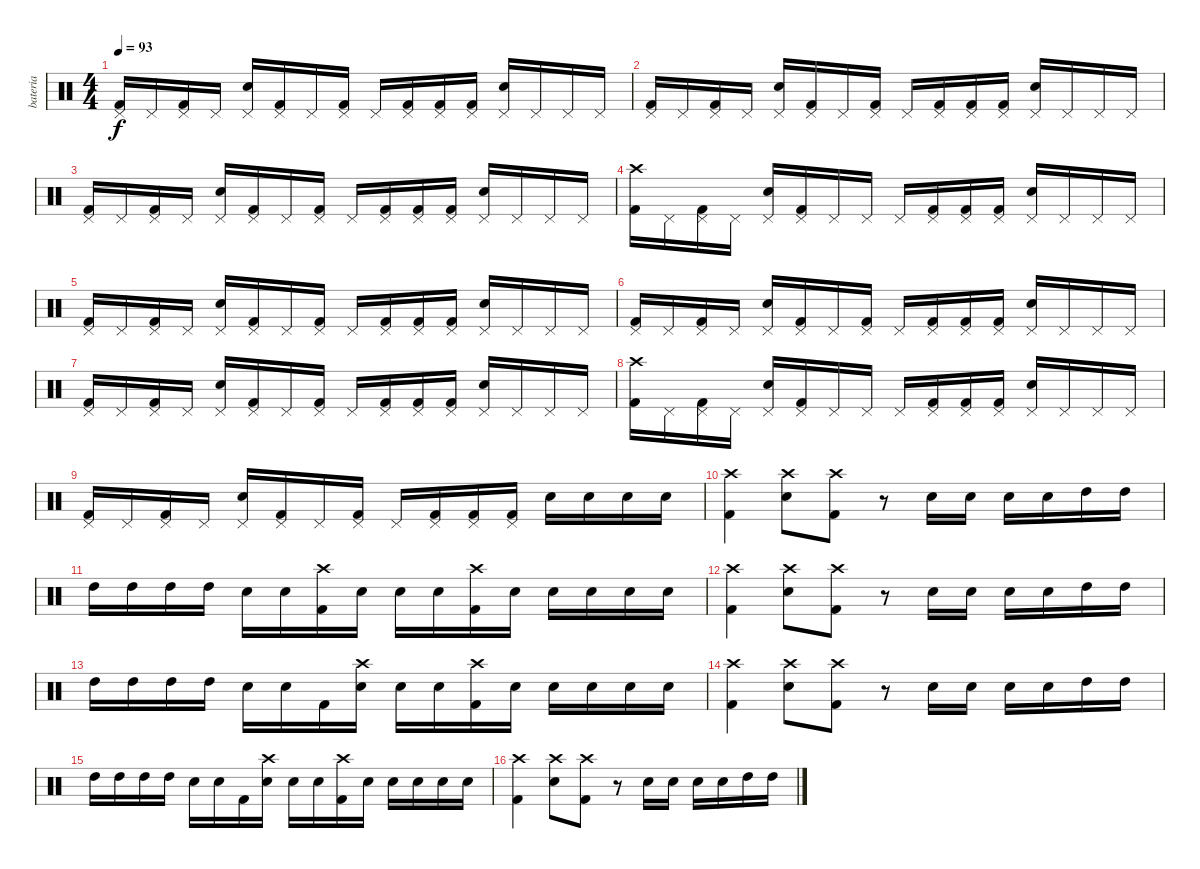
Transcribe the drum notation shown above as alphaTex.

\track ("bateria" "bateria") {instrument percussion}
\staff {score}
\articulation defaults
\ts (4 4)
\tempo 93
\clef neutral
\ks c
("Kick (hit) 2" "Pedal Hi-Hat (hit)").16{dy f} "Pedal Hi-Hat (hit)".16 ("Kick (hit) 2" "Pedal Hi-Hat (hit)").16 "Pedal Hi-Hat (hit)".16 ("Snare (hit) 2" "Pedal Hi-Hat (hit)").16 ("Kick (hit) 2" "Pedal Hi-Hat (hit)").16 "Pedal Hi-Hat (hit)".16 ("Kick (hit) 2" "Pedal Hi-Hat (hit)").16 "Pedal Hi-Hat (hit)".16 ("Kick (hit) 2" "Pedal Hi-Hat (hit)").16 ("Kick (hit) 2" "Pedal Hi-Hat (hit)").16 ("Kick (hit) 2" "Pedal Hi-Hat (hit)").16 ("Snare (hit) 2" "Pedal Hi-Hat (hit)").16 "Pedal Hi-Hat (hit)".16 "Pedal Hi-Hat (hit)".16 "Pedal Hi-Hat (hit)".16 |
("Kick (hit) 2" "Pedal Hi-Hat (hit)").16 "Pedal Hi-Hat (hit)".16 ("Kick (hit) 2" "Pedal Hi-Hat (hit)").16 "Pedal Hi-Hat (hit)".16 ("Snare (hit) 2" "Pedal Hi-Hat (hit)").16 ("Kick (hit) 2" "Pedal Hi-Hat (hit)").16 "Pedal Hi-Hat (hit)".16 ("Kick (hit) 2" "Pedal Hi-Hat (hit)").16 "Pedal Hi-Hat (hit)".16 ("Kick (hit) 2" "Pedal Hi-Hat (hit)").16 ("Kick (hit) 2" "Pedal Hi-Hat (hit)").16 ("Kick (hit) 2" "Pedal Hi-Hat (hit)").16 ("Snare (hit) 2" "Pedal Hi-Hat (hit)").16 "Pedal Hi-Hat (hit)".16 "Pedal Hi-Hat (hit)".16 "Pedal Hi-Hat (hit)".16 |
("Kick (hit) 2" "Pedal Hi-Hat (hit)").16 "Pedal Hi-Hat (hit)".16 ("Kick (hit) 2" "Pedal Hi-Hat (hit)").16 "Pedal Hi-Hat (hit)".16 ("Snare (hit) 2" "Pedal Hi-Hat (hit)").16 ("Kick (hit) 2" "Pedal Hi-Hat (hit)").16 "Pedal Hi-Hat (hit)".16 ("Kick (hit) 2" "Pedal Hi-Hat (hit)").16 "Pedal Hi-Hat (hit)".16 ("Kick (hit) 2" "Pedal Hi-Hat (hit)").16 ("Kick (hit) 2" "Pedal Hi-Hat (hit)").16 ("Kick (hit) 2" "Pedal Hi-Hat (hit)").16 ("Snare (hit) 2" "Pedal Hi-Hat (hit)").16 "Pedal Hi-Hat (hit)".16 "Pedal Hi-Hat (hit)".16 "Pedal Hi-Hat (hit)".16 |
("Kick (hit) 2" "Crash high (hit)").16 "Pedal Hi-Hat (hit)".16 ("Kick (hit) 2" "Pedal Hi-Hat (hit)").16 "Pedal Hi-Hat (hit)".16 ("Snare (hit) 2" "Pedal Hi-Hat (hit)").16 ("Kick (hit) 2" "Pedal Hi-Hat (hit)").16 "Pedal Hi-Hat (hit)".16 "Pedal Hi-Hat (hit)".16 "Pedal Hi-Hat (hit)".16 ("Kick (hit) 2" "Pedal Hi-Hat (hit)").16 ("Kick (hit) 2" "Pedal Hi-Hat (hit)").16 ("Kick (hit) 2" "Pedal Hi-Hat (hit)").16 ("Snare (hit) 2" "Pedal Hi-Hat (hit)").16 "Pedal Hi-Hat (hit)".16 "Pedal Hi-Hat (hit)".16 "Pedal Hi-Hat (hit)".16 |
("Kick (hit) 2" "Pedal Hi-Hat (hit)").16 "Pedal Hi-Hat (hit)".16 ("Kick (hit) 2" "Pedal Hi-Hat (hit)").16 "Pedal Hi-Hat (hit)".16 ("Snare (hit) 2" "Pedal Hi-Hat (hit)").16 ("Kick (hit) 2" "Pedal Hi-Hat (hit)").16 "Pedal Hi-Hat (hit)".16 ("Kick (hit) 2" "Pedal Hi-Hat (hit)").16 "Pedal Hi-Hat (hit)".16 ("Kick (hit) 2" "Pedal Hi-Hat (hit)").16 ("Kick (hit) 2" "Pedal Hi-Hat (hit)").16 ("Kick (hit) 2" "Pedal Hi-Hat (hit)").16 ("Snare (hit) 2" "Pedal Hi-Hat (hit)").16 "Pedal Hi-Hat (hit)".16 "Pedal Hi-Hat (hit)".16 "Pedal Hi-Hat (hit)".16 |
("Kick (hit) 2" "Pedal Hi-Hat (hit)").16 "Pedal Hi-Hat (hit)".16 ("Kick (hit) 2" "Pedal Hi-Hat (hit)").16 "Pedal Hi-Hat (hit)".16 ("Snare (hit) 2" "Pedal Hi-Hat (hit)").16 ("Kick (hit) 2" "Pedal Hi-Hat (hit)").16 "Pedal Hi-Hat (hit)".16 ("Kick (hit) 2" "Pedal Hi-Hat (hit)").16 "Pedal Hi-Hat (hit)".16 ("Kick (hit) 2" "Pedal Hi-Hat (hit)").16 ("Kick (hit) 2" "Pedal Hi-Hat (hit)").16 ("Kick (hit) 2" "Pedal Hi-Hat (hit)").16 ("Snare (hit) 2" "Pedal Hi-Hat (hit)").16 "Pedal Hi-Hat (hit)".16 "Pedal Hi-Hat (hit)".16 "Pedal Hi-Hat (hit)".16 |
("Kick (hit) 2" "Pedal Hi-Hat (hit)").16 "Pedal Hi-Hat (hit)".16 ("Kick (hit) 2" "Pedal Hi-Hat (hit)").16 "Pedal Hi-Hat (hit)".16 ("Snare (hit) 2" "Pedal Hi-Hat (hit)").16 ("Kick (hit) 2" "Pedal Hi-Hat (hit)").16 "Pedal Hi-Hat (hit)".16 ("Kick (hit) 2" "Pedal Hi-Hat (hit)").16 "Pedal Hi-Hat (hit)".16 ("Kick (hit) 2" "Pedal Hi-Hat (hit)").16 ("Kick (hit) 2" "Pedal Hi-Hat (hit)").16 ("Kick (hit) 2" "Pedal Hi-Hat (hit)").16 ("Snare (hit) 2" "Pedal Hi-Hat (hit)").16 "Pedal Hi-Hat (hit)".16 "Pedal Hi-Hat (hit)".16 "Pedal Hi-Hat (hit)".16 |
("Kick (hit) 2" "Crash high (hit)").16 "Pedal Hi-Hat (hit)".16 ("Kick (hit) 2" "Pedal Hi-Hat (hit)").16 "Pedal Hi-Hat (hit)".16 ("Snare (hit) 2" "Pedal Hi-Hat (hit)").16 ("Kick (hit) 2" "Pedal Hi-Hat (hit)").16 "Pedal Hi-Hat (hit)".16 "Pedal Hi-Hat (hit)".16 "Pedal Hi-Hat (hit)".16 ("Kick (hit) 2" "Pedal Hi-Hat (hit)").16 ("Kick (hit) 2" "Pedal Hi-Hat (hit)").16 ("Kick (hit) 2" "Pedal Hi-Hat (hit)").16 ("Snare (hit) 2" "Pedal Hi-Hat (hit)").16 "Pedal Hi-Hat (hit)".16 "Pedal Hi-Hat (hit)".16 "Pedal Hi-Hat (hit)".16 |
("Kick (hit) 2" "Pedal Hi-Hat (hit)").16 "Pedal Hi-Hat (hit)".16 ("Kick (hit) 2" "Pedal Hi-Hat (hit)").16 "Pedal Hi-Hat (hit)".16 ("Snare (hit) 2" "Pedal Hi-Hat (hit)").16 ("Kick (hit) 2" "Pedal Hi-Hat (hit)").16 "Pedal Hi-Hat (hit)".16 ("Kick (hit) 2" "Pedal Hi-Hat (hit)").16 "Pedal Hi-Hat (hit)".16 ("Kick (hit) 2" "Pedal Hi-Hat (hit)").16 ("Kick (hit) 2" "Pedal Hi-Hat (hit)").16 ("Kick (hit) 2" "Pedal Hi-Hat (hit)").16 "Snare (hit) 2".16 "Snare (hit) 2".16 "Snare (hit) 2".16 "Snare (hit) 2".16 |
("Kick (hit) 2" "Crash high (hit)").4 ("Crash high (hit)" "Snare (hit) 2").8 ("Kick (hit) 2" "Crash high (hit)").8 r.8 "Snare (hit) 2".16 "Snare (hit) 2".16 "Snare (hit) 2".16 "Snare (hit) 2".16 "High Tom (hit)".16 "High Tom (hit)".16 |
"High Tom (hit)".16 "High Tom (hit)".16 "High Tom (hit)".16 "High Tom (hit)".16 "Snare (hit) 2".16 "Snare (hit) 2".16 ("Kick (hit) 2" "Crash high (hit)").16 "Snare (hit) 2".16 "Snare (hit) 2".16 "Snare (hit) 2".16 ("Kick (hit) 2" "Crash high (hit)").16 "Snare (hit) 2".16 "Snare (hit) 2".16 "Snare (hit) 2".16 "Snare (hit) 2".16 "Snare (hit) 2".16 |
("Kick (hit) 2" "Crash high (hit)").4 ("Crash high (hit)" "Snare (hit) 2").8 ("Kick (hit) 2" "Crash high (hit)").8 r.8 "Snare (hit) 2".16 "Snare (hit) 2".16 "Snare (hit) 2".16 "Snare (hit) 2".16 "High Tom (hit)".16 "High Tom (hit)".16 |
"High Tom (hit)".16 "High Tom (hit)".16 "High Tom (hit)".16 "High Tom (hit)".16 "Snare (hit) 2".16 "Snare (hit) 2".16 "Kick (hit) 2".16 ("Snare (hit) 2" "Crash high (hit)").16 "Snare (hit) 2".16 "Snare (hit) 2".16 ("Kick (hit) 2" "Crash high (hit)").16 "Snare (hit) 2".16 "Snare (hit) 2".16 "Snare (hit) 2".16 "Snare (hit) 2".16 "Snare (hit) 2".16 |
("Kick (hit) 2" "Crash high (hit)").4 ("Crash high (hit)" "Snare (hit) 2").8 ("Kick (hit) 2" "Crash high (hit)").8 r.8 "Snare (hit) 2".16 "Snare (hit) 2".16 "Snare (hit) 2".16 "Snare (hit) 2".16 "High Tom (hit)".16 "High Tom (hit)".16 |
"High Tom (hit)".16 "High Tom (hit)".16 "High Tom (hit)".16 "High Tom (hit)".16 "Snare (hit) 2".16 "Snare (hit) 2".16 "Kick (hit) 2".16 ("Snare (hit) 2" "Crash high (hit)").16 "Snare (hit) 2".16 "Snare (hit) 2".16 ("Kick (hit) 2" "Crash high (hit)").16 "Snare (hit) 2".16 "Snare (hit) 2".16 "Snare (hit) 2".16 "Snare (hit) 2".16 "Snare (hit) 2".16 |
("Kick (hit) 2" "Crash high (hit)").4 ("Crash high (hit)" "Snare (hit) 2").8 ("Kick (hit) 2" "Crash high (hit)").8 r.8 "Snare (hit) 2".16 "Snare (hit) 2".16 "Snare (hit) 2".16 "Snare (hit) 2".16 "High Tom (hit)".16 "High Tom (hit)".16
